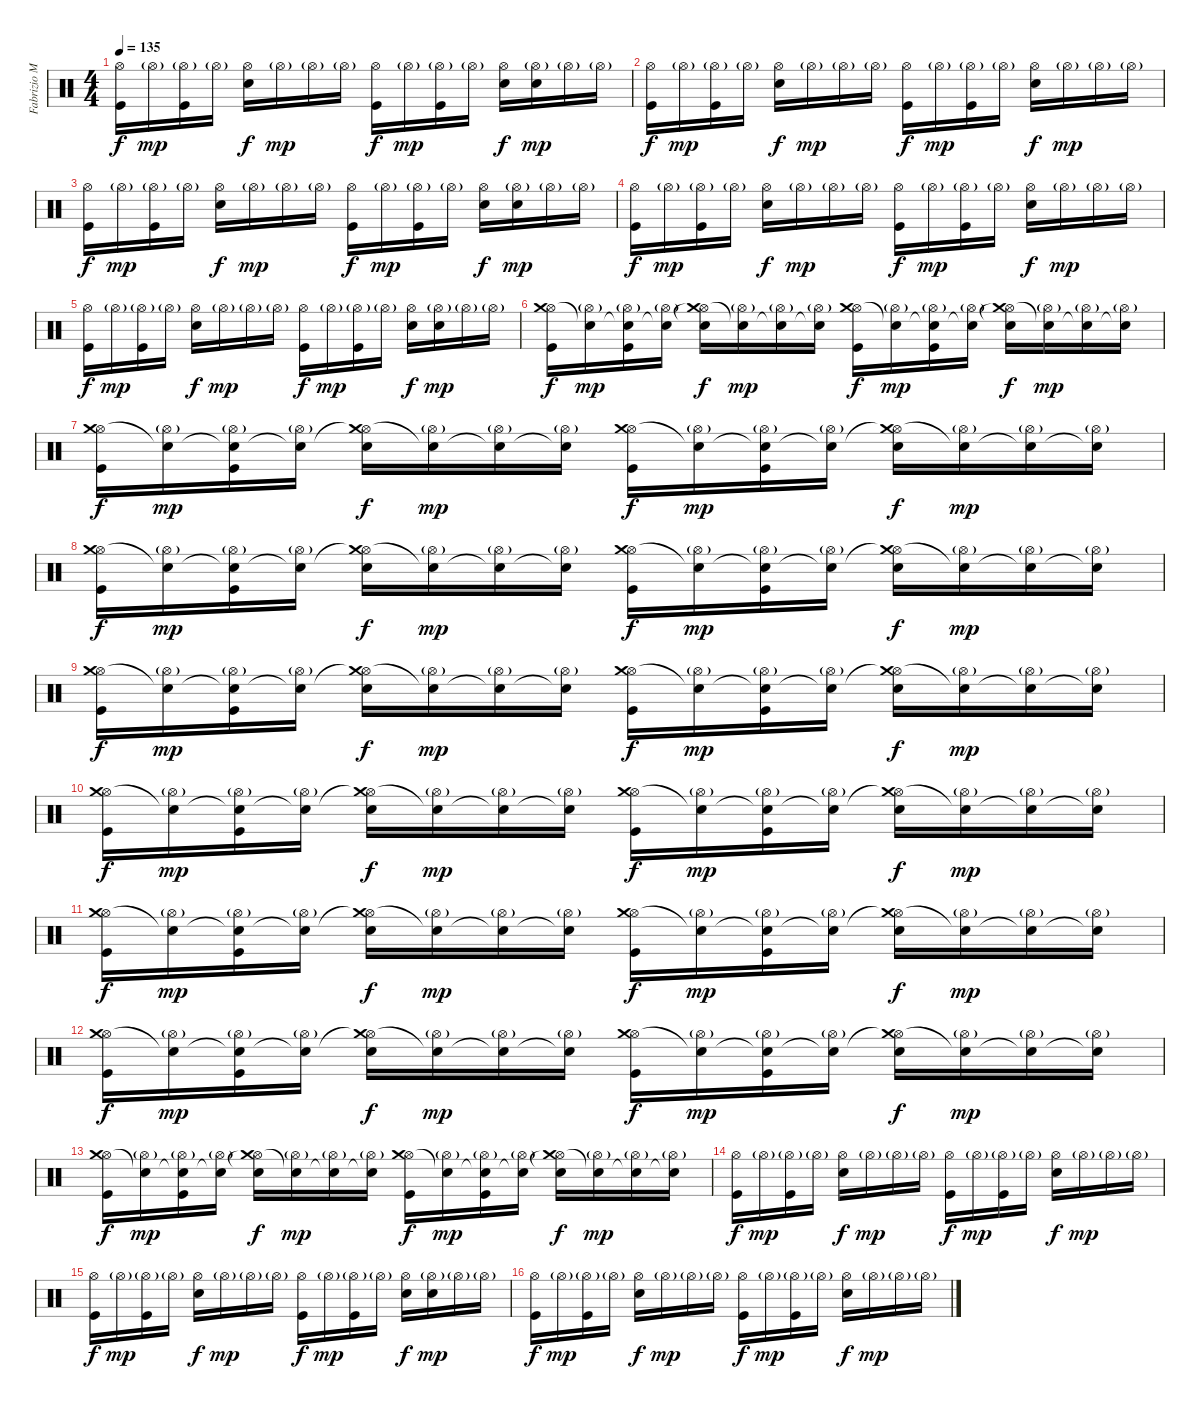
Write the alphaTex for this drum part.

\track ("Fabrizio Moretti" "Fabrizio M") {instrument percussion}
\staff {score}
\articulation defaults
\ts (4 4)
\tempo 135
\clef neutral
\ks c
("Hi-Hat (open)" "Kick (hit)").16{dy f} "Hi-Hat (open)"{g}.16{dy mp} ("Hi-Hat (open)"{g} "Kick (hit)").16 "Hi-Hat (open)"{g}.16 ("Hi-Hat (open)" "Electric Snare (hit)").16{dy f} "Hi-Hat (open)"{g}.16{dy mp} "Hi-Hat (open)"{g}.16 "Hi-Hat (open)"{g}.16 ("Hi-Hat (open)" "Kick (hit)").16{dy f} "Hi-Hat (open)"{g}.16{dy mp} ("Hi-Hat (open)"{g} "Kick (hit)").16 "Hi-Hat (open)"{g}.16 ("Hi-Hat (open)" "Electric Snare (hit)").16{dy f} ("Hi-Hat (open)"{g} "Electric Snare (hit)").16{dy mp} "Hi-Hat (open)"{g}.16 "Hi-Hat (open)"{g}.16 |
("Hi-Hat (open)" "Kick (hit)").16{dy f} "Hi-Hat (open)"{g}.16{dy mp} ("Hi-Hat (open)"{g} "Kick (hit)").16 "Hi-Hat (open)"{g}.16 ("Hi-Hat (open)" "Electric Snare (hit)").16{dy f} "Hi-Hat (open)"{g}.16{dy mp} "Hi-Hat (open)"{g}.16 "Hi-Hat (open)"{g}.16 ("Hi-Hat (open)" "Kick (hit)").16{dy f} "Hi-Hat (open)"{g}.16{dy mp} ("Hi-Hat (open)"{g} "Kick (hit)").16 "Hi-Hat (open)"{g}.16 ("Hi-Hat (open)" "Electric Snare (hit)").16{dy f} "Hi-Hat (open)"{g}.16{dy mp} "Hi-Hat (open)"{g}.16 "Hi-Hat (open)"{g}.16 |
("Hi-Hat (open)" "Kick (hit)").16{dy f} "Hi-Hat (open)"{g}.16{dy mp} ("Hi-Hat (open)"{g} "Kick (hit)").16 "Hi-Hat (open)"{g}.16 ("Hi-Hat (open)" "Electric Snare (hit)").16{dy f} "Hi-Hat (open)"{g}.16{dy mp} "Hi-Hat (open)"{g}.16 "Hi-Hat (open)"{g}.16 ("Hi-Hat (open)" "Kick (hit)").16{dy f} "Hi-Hat (open)"{g}.16{dy mp} ("Hi-Hat (open)"{g} "Kick (hit)").16 "Hi-Hat (open)"{g}.16 ("Hi-Hat (open)" "Electric Snare (hit)").16{dy f} ("Hi-Hat (open)"{g} "Electric Snare (hit)").16{dy mp} "Hi-Hat (open)"{g}.16 "Hi-Hat (open)"{g}.16 |
("Hi-Hat (open)" "Kick (hit)").16{dy f} "Hi-Hat (open)"{g}.16{dy mp} ("Hi-Hat (open)"{g} "Kick (hit)").16 "Hi-Hat (open)"{g}.16 ("Hi-Hat (open)" "Electric Snare (hit)").16{dy f} "Hi-Hat (open)"{g}.16{dy mp} "Hi-Hat (open)"{g}.16 "Hi-Hat (open)"{g}.16 ("Hi-Hat (open)" "Kick (hit)").16{dy f} "Hi-Hat (open)"{g}.16{dy mp} ("Hi-Hat (open)"{g} "Kick (hit)").16 "Hi-Hat (open)"{g}.16 ("Hi-Hat (open)" "Electric Snare (hit)").16{dy f} "Hi-Hat (open)"{g}.16{dy mp} "Hi-Hat (open)"{g}.16 "Hi-Hat (open)"{g}.16 |
("Hi-Hat (open)" "Kick (hit)").16{dy f} "Hi-Hat (open)"{g}.16{dy mp} ("Hi-Hat (open)"{g} "Kick (hit)").16 "Hi-Hat (open)"{g}.16 ("Hi-Hat (open)" "Electric Snare (hit)").16{dy f} "Hi-Hat (open)"{g}.16{dy mp} "Hi-Hat (open)"{g}.16 "Hi-Hat (open)"{g}.16 ("Hi-Hat (open)" "Kick (hit)").16{dy f} "Hi-Hat (open)"{g}.16{dy mp} ("Hi-Hat (open)"{g} "Kick (hit)").16 "Hi-Hat (open)"{g}.16 ("Hi-Hat (open)" "Electric Snare (hit)").16{dy f} ("Hi-Hat (open)"{g} "Electric Snare (hit)").16{dy mp} "Hi-Hat (open)"{g}.16 "Hi-Hat (open)"{g}.16 |
("Hi-Hat (open)" "Crash medium (hit)" "Kick (hit)").16{dy f} ("Hi-Hat (open)"{g} "Snare (hit)"{t}).16{dy mp} ("Hi-Hat (open)"{g} "Snare (hit)"{t} "Kick (hit)").16 ("Hi-Hat (open)"{g} "Snare (hit)"{t}).16 ("Hi-Hat (open)" "Crash medium (hit)"{t} "Electric Snare (hit)").16{dy f} ("Hi-Hat (open)"{g} "Snare (hit)"{t}).16{dy mp} ("Hi-Hat (open)"{g} "Snare (hit)"{t}).16 ("Hi-Hat (open)"{g} "Snare (hit)"{t}).16 ("Hi-Hat (open)" "Crash medium (hit)" "Kick (hit)").16{dy f} ("Hi-Hat (open)"{g} "Snare (hit)"{t}).16{dy mp} ("Hi-Hat (open)"{g} "Snare (hit)"{t} "Kick (hit)").16 ("Hi-Hat (open)"{g} "Snare (hit)"{t}).16 ("Hi-Hat (open)" "Crash medium (hit)"{t} "Electric Snare (hit)").16{dy f} ("Hi-Hat (open)"{g} "Snare (hit)"{t}).16{dy mp} ("Hi-Hat (open)"{g} "Snare (hit)"{t}).16 ("Hi-Hat (open)"{g} "Snare (hit)"{t}).16 |
("Hi-Hat (open)" "Crash medium (hit)" "Kick (hit)").16{dy f} ("Hi-Hat (open)"{g} "Snare (hit)"{t}).16{dy mp} ("Hi-Hat (open)"{g} "Snare (hit)"{t} "Kick (hit)").16 ("Hi-Hat (open)"{g} "Snare (hit)"{t}).16 ("Hi-Hat (open)" "Crash medium (hit)"{t} "Electric Snare (hit)").16{dy f} ("Hi-Hat (open)"{g} "Snare (hit)"{t}).16{dy mp} ("Hi-Hat (open)"{g} "Snare (hit)"{t}).16 ("Hi-Hat (open)"{g} "Snare (hit)"{t}).16 ("Hi-Hat (open)" "Crash medium (hit)" "Kick (hit)").16{dy f} ("Hi-Hat (open)"{g} "Snare (hit)"{t}).16{dy mp} ("Hi-Hat (open)"{g} "Snare (hit)"{t} "Kick (hit)").16 ("Hi-Hat (open)"{g} "Snare (hit)"{t}).16 ("Hi-Hat (open)" "Crash medium (hit)"{t} "Electric Snare (hit)").16{dy f} ("Hi-Hat (open)"{g} "Snare (hit)"{t}).16{dy mp} ("Hi-Hat (open)"{g} "Snare (hit)"{t}).16 ("Hi-Hat (open)"{g} "Snare (hit)"{t}).16 |
("Hi-Hat (open)" "Crash medium (hit)" "Kick (hit)").16{dy f} ("Hi-Hat (open)"{g} "Snare (hit)"{t}).16{dy mp} ("Hi-Hat (open)"{g} "Snare (hit)"{t} "Kick (hit)").16 ("Hi-Hat (open)"{g} "Snare (hit)"{t}).16 ("Hi-Hat (open)" "Crash medium (hit)"{t} "Electric Snare (hit)").16{dy f} ("Hi-Hat (open)"{g} "Snare (hit)"{t}).16{dy mp} ("Hi-Hat (open)"{g} "Snare (hit)"{t}).16 ("Hi-Hat (open)"{g} "Snare (hit)"{t}).16 ("Hi-Hat (open)" "Crash medium (hit)" "Kick (hit)").16{dy f} ("Hi-Hat (open)"{g} "Snare (hit)"{t}).16{dy mp} ("Hi-Hat (open)"{g} "Snare (hit)"{t} "Kick (hit)").16 ("Hi-Hat (open)"{g} "Snare (hit)"{t}).16 ("Hi-Hat (open)" "Crash medium (hit)"{t} "Electric Snare (hit)").16{dy f} ("Hi-Hat (open)"{g} "Snare (hit)"{t}).16{dy mp} ("Hi-Hat (open)"{g} "Snare (hit)"{t}).16 ("Hi-Hat (open)"{g} "Snare (hit)"{t}).16 |
("Hi-Hat (open)" "Crash medium (hit)" "Kick (hit)").16{dy f} ("Hi-Hat (open)"{g} "Snare (hit)"{t}).16{dy mp} ("Hi-Hat (open)"{g} "Snare (hit)"{t} "Kick (hit)").16 ("Hi-Hat (open)"{g} "Snare (hit)"{t}).16 ("Hi-Hat (open)" "Crash medium (hit)"{t} "Electric Snare (hit)").16{dy f} ("Hi-Hat (open)"{g} "Snare (hit)"{t}).16{dy mp} ("Hi-Hat (open)"{g} "Snare (hit)"{t}).16 ("Hi-Hat (open)"{g} "Snare (hit)"{t}).16 ("Hi-Hat (open)" "Crash medium (hit)" "Kick (hit)").16{dy f} ("Hi-Hat (open)"{g} "Snare (hit)"{t}).16{dy mp} ("Hi-Hat (open)"{g} "Snare (hit)"{t} "Kick (hit)").16 ("Hi-Hat (open)"{g} "Snare (hit)"{t}).16 ("Hi-Hat (open)" "Crash medium (hit)"{t} "Electric Snare (hit)").16{dy f} ("Hi-Hat (open)"{g} "Snare (hit)"{t}).16{dy mp} ("Hi-Hat (open)"{g} "Snare (hit)"{t}).16 ("Hi-Hat (open)"{g} "Snare (hit)"{t}).16 |
("Hi-Hat (open)" "Crash medium (hit)" "Kick (hit)").16{dy f} ("Hi-Hat (open)"{g} "Snare (hit)"{t}).16{dy mp} ("Hi-Hat (open)"{g} "Snare (hit)"{t} "Kick (hit)").16 ("Hi-Hat (open)"{g} "Snare (hit)"{t}).16 ("Hi-Hat (open)" "Crash medium (hit)"{t} "Electric Snare (hit)").16{dy f} ("Hi-Hat (open)"{g} "Snare (hit)"{t}).16{dy mp} ("Hi-Hat (open)"{g} "Snare (hit)"{t}).16 ("Hi-Hat (open)"{g} "Snare (hit)"{t}).16 ("Hi-Hat (open)" "Crash medium (hit)" "Kick (hit)").16{dy f} ("Hi-Hat (open)"{g} "Snare (hit)"{t}).16{dy mp} ("Hi-Hat (open)"{g} "Snare (hit)"{t} "Kick (hit)").16 ("Hi-Hat (open)"{g} "Snare (hit)"{t}).16 ("Hi-Hat (open)" "Crash medium (hit)"{t} "Electric Snare (hit)").16{dy f} ("Hi-Hat (open)"{g} "Snare (hit)"{t}).16{dy mp} ("Hi-Hat (open)"{g} "Snare (hit)"{t}).16 ("Hi-Hat (open)"{g} "Snare (hit)"{t}).16 |
("Hi-Hat (open)" "Crash medium (hit)" "Kick (hit)").16{dy f} ("Hi-Hat (open)"{g} "Snare (hit)"{t}).16{dy mp} ("Hi-Hat (open)"{g} "Snare (hit)"{t} "Kick (hit)").16 ("Hi-Hat (open)"{g} "Snare (hit)"{t}).16 ("Hi-Hat (open)" "Crash medium (hit)"{t} "Electric Snare (hit)").16{dy f} ("Hi-Hat (open)"{g} "Snare (hit)"{t}).16{dy mp} ("Hi-Hat (open)"{g} "Snare (hit)"{t}).16 ("Hi-Hat (open)"{g} "Snare (hit)"{t}).16 ("Hi-Hat (open)" "Crash medium (hit)" "Kick (hit)").16{dy f} ("Hi-Hat (open)"{g} "Snare (hit)"{t}).16{dy mp} ("Hi-Hat (open)"{g} "Snare (hit)"{t} "Kick (hit)").16 ("Hi-Hat (open)"{g} "Snare (hit)"{t}).16 ("Hi-Hat (open)" "Crash medium (hit)"{t} "Electric Snare (hit)").16{dy f} ("Hi-Hat (open)"{g} "Snare (hit)"{t}).16{dy mp} ("Hi-Hat (open)"{g} "Snare (hit)"{t}).16 ("Hi-Hat (open)"{g} "Snare (hit)"{t}).16 |
("Hi-Hat (open)" "Crash medium (hit)" "Kick (hit)").16{dy f} ("Hi-Hat (open)"{g} "Snare (hit)"{t}).16{dy mp} ("Hi-Hat (open)"{g} "Snare (hit)"{t} "Kick (hit)").16 ("Hi-Hat (open)"{g} "Snare (hit)"{t}).16 ("Hi-Hat (open)" "Crash medium (hit)"{t} "Electric Snare (hit)").16{dy f} ("Hi-Hat (open)"{g} "Snare (hit)"{t}).16{dy mp} ("Hi-Hat (open)"{g} "Snare (hit)"{t}).16 ("Hi-Hat (open)"{g} "Snare (hit)"{t}).16 ("Hi-Hat (open)" "Crash medium (hit)" "Kick (hit)").16{dy f} ("Hi-Hat (open)"{g} "Snare (hit)"{t}).16{dy mp} ("Hi-Hat (open)"{g} "Snare (hit)"{t} "Kick (hit)").16 ("Hi-Hat (open)"{g} "Snare (hit)"{t}).16 ("Hi-Hat (open)" "Crash medium (hit)"{t} "Electric Snare (hit)").16{dy f} ("Hi-Hat (open)"{g} "Snare (hit)"{t}).16{dy mp} ("Hi-Hat (open)"{g} "Snare (hit)"{t}).16 ("Hi-Hat (open)"{g} "Snare (hit)"{t}).16 |
("Hi-Hat (open)" "Crash medium (hit)" "Kick (hit)").16{dy f} ("Hi-Hat (open)"{g} "Snare (hit)"{t}).16{dy mp} ("Hi-Hat (open)"{g} "Snare (hit)"{t} "Kick (hit)").16 ("Hi-Hat (open)"{g} "Snare (hit)"{t}).16 ("Hi-Hat (open)" "Crash medium (hit)"{t} "Electric Snare (hit)").16{dy f} ("Hi-Hat (open)"{g} "Snare (hit)"{t}).16{dy mp} ("Hi-Hat (open)"{g} "Snare (hit)"{t}).16 ("Hi-Hat (open)"{g} "Snare (hit)"{t}).16 ("Hi-Hat (open)" "Crash medium (hit)" "Kick (hit)").16{dy f} ("Hi-Hat (open)"{g} "Snare (hit)"{t}).16{dy mp} ("Hi-Hat (open)"{g} "Snare (hit)"{t} "Kick (hit)").16 ("Hi-Hat (open)"{g} "Snare (hit)"{t}).16 ("Hi-Hat (open)" "Crash medium (hit)"{t} "Electric Snare (hit)").16{dy f} ("Hi-Hat (open)"{g} "Snare (hit)"{t}).16{dy mp} ("Hi-Hat (open)"{g} "Snare (hit)"{t}).16 ("Hi-Hat (open)"{g} "Snare (hit)"{t}).16 |
("Hi-Hat (open)" "Kick (hit)").16{dy f} "Hi-Hat (open)"{g}.16{dy mp} ("Hi-Hat (open)"{g} "Kick (hit)").16 "Hi-Hat (open)"{g}.16 ("Hi-Hat (open)" "Electric Snare (hit)").16{dy f} "Hi-Hat (open)"{g}.16{dy mp} "Hi-Hat (open)"{g}.16 "Hi-Hat (open)"{g}.16 ("Hi-Hat (open)" "Kick (hit)").16{dy f} "Hi-Hat (open)"{g}.16{dy mp} ("Hi-Hat (open)"{g} "Kick (hit)").16 "Hi-Hat (open)"{g}.16 ("Hi-Hat (open)" "Electric Snare (hit)").16{dy f} "Hi-Hat (open)"{g}.16{dy mp} "Hi-Hat (open)"{g}.16 "Hi-Hat (open)"{g}.16 |
("Hi-Hat (open)" "Kick (hit)").16{dy f} "Hi-Hat (open)"{g}.16{dy mp} ("Hi-Hat (open)"{g} "Kick (hit)").16 "Hi-Hat (open)"{g}.16 ("Hi-Hat (open)" "Electric Snare (hit)").16{dy f} "Hi-Hat (open)"{g}.16{dy mp} "Hi-Hat (open)"{g}.16 "Hi-Hat (open)"{g}.16 ("Hi-Hat (open)" "Kick (hit)").16{dy f} "Hi-Hat (open)"{g}.16{dy mp} ("Hi-Hat (open)"{g} "Kick (hit)").16 "Hi-Hat (open)"{g}.16 ("Hi-Hat (open)" "Electric Snare (hit)").16{dy f} ("Hi-Hat (open)"{g} "Electric Snare (hit)").16{dy mp} "Hi-Hat (open)"{g}.16 "Hi-Hat (open)"{g}.16 |
("Hi-Hat (open)" "Kick (hit)").16{dy f} "Hi-Hat (open)"{g}.16{dy mp} ("Hi-Hat (open)"{g} "Kick (hit)").16 "Hi-Hat (open)"{g}.16 ("Hi-Hat (open)" "Electric Snare (hit)").16{dy f} "Hi-Hat (open)"{g}.16{dy mp} "Hi-Hat (open)"{g}.16 "Hi-Hat (open)"{g}.16 ("Hi-Hat (open)" "Kick (hit)").16{dy f} "Hi-Hat (open)"{g}.16{dy mp} ("Hi-Hat (open)"{g} "Kick (hit)").16 "Hi-Hat (open)"{g}.16 ("Hi-Hat (open)" "Electric Snare (hit)").16{dy f} "Hi-Hat (open)"{g}.16{dy mp} "Hi-Hat (open)"{g}.16 "Hi-Hat (open)"{g}.16
